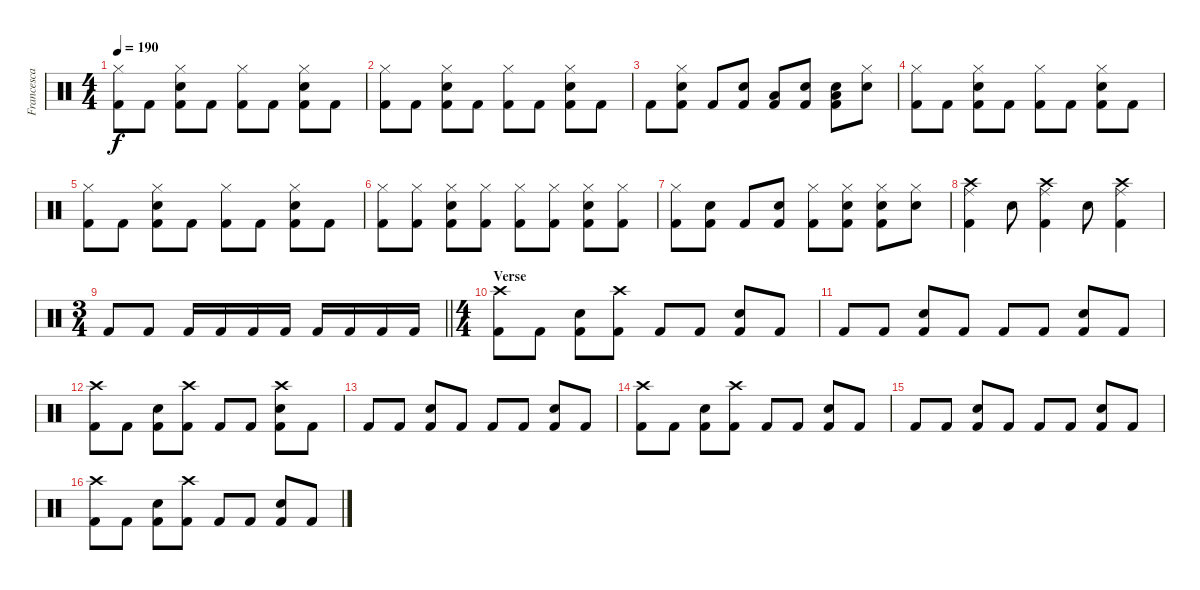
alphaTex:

\track ("Francesca Tresca" "Francesca ") {instrument percussion}
\staff {score}
\articulation defaults
\ts (4 4)
\tempo 190
\clef neutral
\ks c
("Hi-Hat (closed)" "Kick (hit) 2").8{dy f} "Kick (hit) 2".8 ("Hi-Hat (closed)" "Snare (hit) 2" "Kick (hit) 2").8 "Kick (hit) 2".8 ("Hi-Hat (closed)" "Kick (hit) 2").8 "Kick (hit) 2".8 ("Hi-Hat (closed)" "Snare (hit) 2" "Kick (hit) 2").8 "Kick (hit) 2".8 |
("Hi-Hat (closed)" "Kick (hit) 2").8 "Kick (hit) 2".8 ("Hi-Hat (closed)" "Snare (hit) 2" "Kick (hit) 2").8 "Kick (hit) 2".8 ("Hi-Hat (closed)" "Kick (hit) 2").8 "Kick (hit) 2".8 ("Hi-Hat (closed)" "Snare (hit) 2" "Kick (hit) 2").8 "Kick (hit) 2".8 |
"Kick (hit) 2".8 ("Hi-Hat (closed)" "Snare (hit) 2" "Kick (hit) 2").8 "Kick (hit) 2".8 ("Snare (hit) 2" "Kick (hit) 2").8 ("Low Tom (hit)" "Kick (hit) 2").8 ("Snare (hit) 2" "Kick (hit) 2").8 ("Low Tom (hit)" "Snare (hit) 2" "Kick (hit) 2").8 ("Hi-Hat (closed)" "Snare (hit) 2").8 |
("Hi-Hat (closed)" "Kick (hit) 2").8 "Kick (hit) 2".8 ("Hi-Hat (closed)" "Snare (hit) 2" "Kick (hit) 2").8 "Kick (hit) 2".8 ("Hi-Hat (closed)" "Kick (hit) 2").8 "Kick (hit) 2".8 ("Hi-Hat (closed)" "Snare (hit) 2" "Kick (hit) 2").8 "Kick (hit) 2".8 |
("Hi-Hat (closed)" "Kick (hit) 2").8 "Kick (hit) 2".8 ("Hi-Hat (closed)" "Snare (hit) 2" "Kick (hit) 2").8 "Kick (hit) 2".8 ("Hi-Hat (closed)" "Kick (hit) 2").8 "Kick (hit) 2".8 ("Hi-Hat (closed)" "Snare (hit) 2" "Kick (hit) 2").8 "Kick (hit) 2".8 |
("Hi-Hat (closed)" "Kick (hit) 2").8 ("Hi-Hat (closed)" "Kick (hit) 2").8 ("Hi-Hat (closed)" "Snare (hit) 2" "Kick (hit) 2").8 ("Hi-Hat (closed)" "Kick (hit) 2").8 ("Hi-Hat (closed)" "Kick (hit) 2").8 ("Hi-Hat (closed)" "Kick (hit) 2").8 ("Hi-Hat (closed)" "Snare (hit) 2" "Kick (hit) 2").8 ("Hi-Hat (closed)" "Kick (hit) 2").8 |
("Hi-Hat (closed)" "Kick (hit) 2").8 ("Snare (hit) 2" "Kick (hit) 2").8 "Kick (hit) 2".8 ("Snare (hit) 2" "Kick (hit) 2").8 ("Hi-Hat (closed)" "Kick (hit) 2").8 ("Hi-Hat (closed)" "Snare (hit) 2" "Kick (hit) 2").8 ("Hi-Hat (closed)" "Snare (hit) 2" "Kick (hit) 2").8 ("Hi-Hat (closed)" "Snare (hit) 2").8 |
("Ride (middle)" "Crash high (hit)" "Kick (hit) 2").4 "Snare (hit) 2".8 ("Ride (middle)" "Crash high (hit)" "Kick (hit) 2").4 "Snare (hit) 2".8 ("Ride (middle)" "Crash high (hit)" "Kick (hit) 2").4 |
\ts (3 4)
\barLineRight lightlight "Kick (hit) 2".8 "Kick (hit) 2".8 "Kick (hit) 2".16 "Kick (hit) 2".16 "Kick (hit) 2".16 "Kick (hit) 2".16 "Kick (hit) 2".16 "Kick (hit) 2".16 "Kick (hit) 2".16 "Kick (hit) 2".16
|
\ts (4 4)
\section ("" "Verse")
("Crash high (hit)" "Kick (hit) 2").8 "Kick (hit) 2".8 ("Snare (hit) 2" "Kick (hit) 2").8 ("Crash high (hit)" "Kick (hit) 2").8 "Kick (hit) 2".8 "Kick (hit) 2".8 ("Snare (hit) 2" "Kick (hit) 2").8 "Kick (hit) 2".8 |
"Kick (hit) 2".8 "Kick (hit) 2".8 ("Snare (hit) 2" "Kick (hit) 2").8 "Kick (hit) 2".8 "Kick (hit) 2".8 "Kick (hit) 2".8 ("Snare (hit) 2" "Kick (hit) 2").8 "Kick (hit) 2".8 |
("Crash high (hit)" "Kick (hit) 2").8 "Kick (hit) 2".8 ("Snare (hit) 2" "Kick (hit) 2").8 ("Crash high (hit)" "Kick (hit) 2").8 "Kick (hit) 2".8 "Kick (hit) 2".8 ("Crash high (hit)" "Snare (hit) 2" "Kick (hit) 2").8 "Kick (hit) 2".8 |
"Kick (hit) 2".8 "Kick (hit) 2".8 ("Snare (hit) 2" "Kick (hit) 2").8 "Kick (hit) 2".8 "Kick (hit) 2".8 "Kick (hit) 2".8 ("Snare (hit) 2" "Kick (hit) 2").8 "Kick (hit) 2".8 |
("Crash high (hit)" "Kick (hit) 2").8 "Kick (hit) 2".8 ("Snare (hit) 2" "Kick (hit) 2").8 ("Crash high (hit)" "Kick (hit) 2").8 "Kick (hit) 2".8 "Kick (hit) 2".8 ("Snare (hit) 2" "Kick (hit) 2").8 "Kick (hit) 2".8 |
"Kick (hit) 2".8 "Kick (hit) 2".8 ("Snare (hit) 2" "Kick (hit) 2").8 "Kick (hit) 2".8 "Kick (hit) 2".8 "Kick (hit) 2".8 ("Snare (hit) 2" "Kick (hit) 2").8 "Kick (hit) 2".8 |
("Crash high (hit)" "Kick (hit) 2").8 "Kick (hit) 2".8 ("Snare (hit) 2" "Kick (hit) 2").8 ("Crash high (hit)" "Kick (hit) 2").8 "Kick (hit) 2".8 "Kick (hit) 2".8 ("Snare (hit) 2" "Kick (hit) 2").8 "Kick (hit) 2".8
